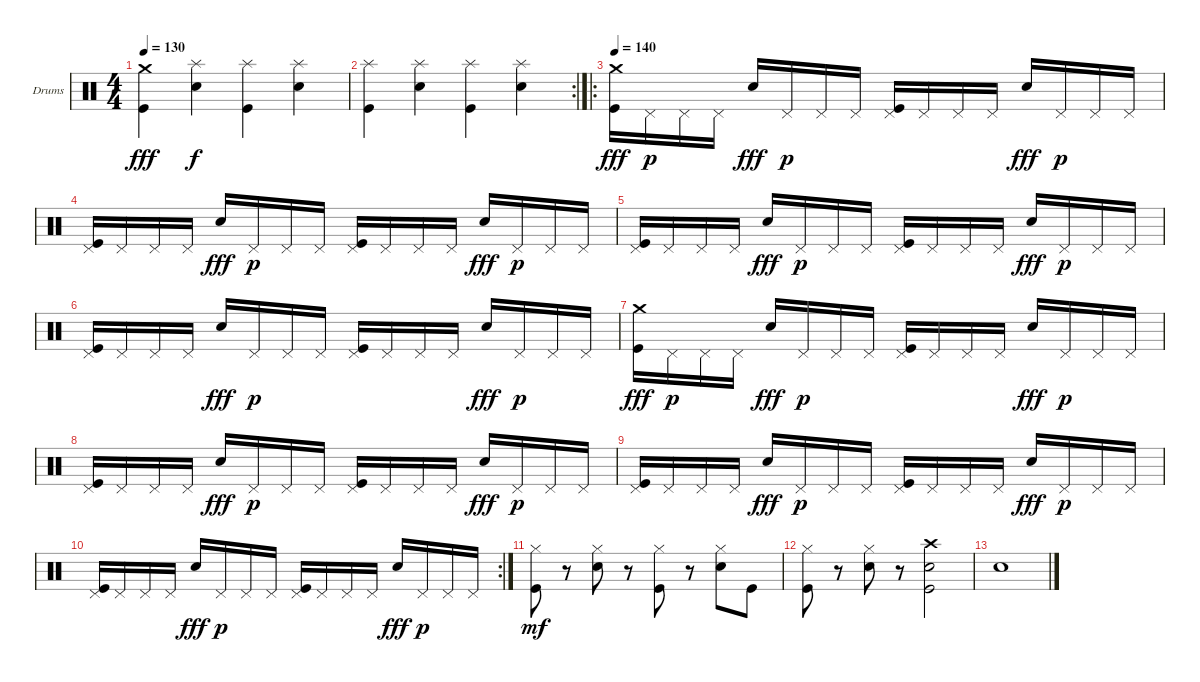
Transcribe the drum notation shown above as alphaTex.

\bracketExtendMode groupsimilarinstruments
\firstSystemTrackNameOrientation horizontal
\otherSystemsTrackNameOrientation horizontal
\track ("Drums" "Drums") {instrument percussion}
\staff {score}
\articulation defaults
\ts (4 4)
\tempo 130
\clef neutral
\ks c
("Crash medium (hit)" "Kick (hit)").4{dy fff} ("Splash (hit)" "Snare (hit) 2").4{dy f} ("Splash (hit)" "Kick (hit)").4 ("Splash (hit)" "Snare (hit) 2").4 |
\rc 2
("Splash (hit)" "Kick (hit)").4 ("Splash (hit)" "Snare (hit) 2").4 ("Splash (hit)" "Kick (hit)").4 ("Splash (hit)" "Snare (hit) 2").4 |
\ro
\tempo 140
("Crash medium (hit)" "Kick (hit)").16{dy fff} "Pedal Hi-Hat (hit)".16{dy p} "Pedal Hi-Hat (hit)".16 "Pedal Hi-Hat (hit)".16 "Snare (hit) 2".16{dy fff} "Pedal Hi-Hat (hit)".16{dy p} "Pedal Hi-Hat (hit)".16 "Pedal Hi-Hat (hit)".16 ("Pedal Hi-Hat (hit)" "Kick (hit)").16 "Pedal Hi-Hat (hit)".16 "Pedal Hi-Hat (hit)".16 "Pedal Hi-Hat (hit)".16 "Snare (hit) 2".16{dy fff} "Pedal Hi-Hat (hit)".16{dy p} "Pedal Hi-Hat (hit)".16 "Pedal Hi-Hat (hit)".16 |
("Pedal Hi-Hat (hit)" "Kick (hit)").16 "Pedal Hi-Hat (hit)".16 "Pedal Hi-Hat (hit)".16 "Pedal Hi-Hat (hit)".16 "Snare (hit) 2".16{dy fff} "Pedal Hi-Hat (hit)".16{dy p} "Pedal Hi-Hat (hit)".16 "Pedal Hi-Hat (hit)".16 ("Pedal Hi-Hat (hit)" "Kick (hit)").16 "Pedal Hi-Hat (hit)".16 "Pedal Hi-Hat (hit)".16 "Pedal Hi-Hat (hit)".16 "Snare (hit) 2".16{dy fff} "Pedal Hi-Hat (hit)".16{dy p} "Pedal Hi-Hat (hit)".16 "Pedal Hi-Hat (hit)".16 |
("Pedal Hi-Hat (hit)" "Kick (hit)").16 "Pedal Hi-Hat (hit)".16 "Pedal Hi-Hat (hit)".16 "Pedal Hi-Hat (hit)".16 "Snare (hit) 2".16{dy fff} "Pedal Hi-Hat (hit)".16{dy p} "Pedal Hi-Hat (hit)".16 "Pedal Hi-Hat (hit)".16 ("Pedal Hi-Hat (hit)" "Kick (hit)").16 "Pedal Hi-Hat (hit)".16 "Pedal Hi-Hat (hit)".16 "Pedal Hi-Hat (hit)".16 "Snare (hit) 2".16{dy fff} "Pedal Hi-Hat (hit)".16{dy p} "Pedal Hi-Hat (hit)".16 "Pedal Hi-Hat (hit)".16 |
("Pedal Hi-Hat (hit)" "Kick (hit)").16 "Pedal Hi-Hat (hit)".16 "Pedal Hi-Hat (hit)".16 "Pedal Hi-Hat (hit)".16 "Snare (hit) 2".16{dy fff} "Pedal Hi-Hat (hit)".16{dy p} "Pedal Hi-Hat (hit)".16 "Pedal Hi-Hat (hit)".16 ("Pedal Hi-Hat (hit)" "Kick (hit)").16 "Pedal Hi-Hat (hit)".16 "Pedal Hi-Hat (hit)".16 "Pedal Hi-Hat (hit)".16 "Snare (hit) 2".16{dy fff} "Pedal Hi-Hat (hit)".16{dy p} "Pedal Hi-Hat (hit)".16 "Pedal Hi-Hat (hit)".16 |
("Crash medium (hit)" "Kick (hit)").16{dy fff} "Pedal Hi-Hat (hit)".16{dy p} "Pedal Hi-Hat (hit)".16 "Pedal Hi-Hat (hit)".16 "Snare (hit) 2".16{dy fff} "Pedal Hi-Hat (hit)".16{dy p} "Pedal Hi-Hat (hit)".16 "Pedal Hi-Hat (hit)".16 ("Pedal Hi-Hat (hit)" "Kick (hit)").16 "Pedal Hi-Hat (hit)".16 "Pedal Hi-Hat (hit)".16 "Pedal Hi-Hat (hit)".16 "Snare (hit) 2".16{dy fff} "Pedal Hi-Hat (hit)".16{dy p} "Pedal Hi-Hat (hit)".16 "Pedal Hi-Hat (hit)".16 |
("Pedal Hi-Hat (hit)" "Kick (hit)").16 "Pedal Hi-Hat (hit)".16 "Pedal Hi-Hat (hit)".16 "Pedal Hi-Hat (hit)".16 "Snare (hit) 2".16{dy fff} "Pedal Hi-Hat (hit)".16{dy p} "Pedal Hi-Hat (hit)".16 "Pedal Hi-Hat (hit)".16 ("Pedal Hi-Hat (hit)" "Kick (hit)").16 "Pedal Hi-Hat (hit)".16 "Pedal Hi-Hat (hit)".16 "Pedal Hi-Hat (hit)".16 "Snare (hit) 2".16{dy fff} "Pedal Hi-Hat (hit)".16{dy p} "Pedal Hi-Hat (hit)".16 "Pedal Hi-Hat (hit)".16 |
("Pedal Hi-Hat (hit)" "Kick (hit)").16 "Pedal Hi-Hat (hit)".16 "Pedal Hi-Hat (hit)".16 "Pedal Hi-Hat (hit)".16 "Snare (hit) 2".16{dy fff} "Pedal Hi-Hat (hit)".16{dy p} "Pedal Hi-Hat (hit)".16 "Pedal Hi-Hat (hit)".16 ("Pedal Hi-Hat (hit)" "Kick (hit)").16 "Pedal Hi-Hat (hit)".16 "Pedal Hi-Hat (hit)".16 "Pedal Hi-Hat (hit)".16 "Snare (hit) 2".16{dy fff} "Pedal Hi-Hat (hit)".16{dy p} "Pedal Hi-Hat (hit)".16 "Pedal Hi-Hat (hit)".16 |
\rc 2
("Pedal Hi-Hat (hit)" "Kick (hit)").16 "Pedal Hi-Hat (hit)".16 "Pedal Hi-Hat (hit)".16 "Pedal Hi-Hat (hit)".16 "Snare (hit) 2".16{dy fff} "Pedal Hi-Hat (hit)".16{dy p} "Pedal Hi-Hat (hit)".16 "Pedal Hi-Hat (hit)".16 ("Pedal Hi-Hat (hit)" "Kick (hit)").16 "Pedal Hi-Hat (hit)".16 "Pedal Hi-Hat (hit)".16 "Pedal Hi-Hat (hit)".16 "Snare (hit) 2".16{dy fff} "Pedal Hi-Hat (hit)".16{dy p} "Pedal Hi-Hat (hit)".16 "Pedal Hi-Hat (hit)".16 |
("Kick (hit)" "Hi-Hat (closed)").8{dy mf} r.8 ("Snare (hit) 2" "Hi-Hat (closed)").8 r.8 ("Kick (hit)" "Hi-Hat (closed)").8 r.8 ("Snare (hit) 2" "Hi-Hat (closed)").8 "Kick (hit)".8 |
("Kick (hit)" "Hi-Hat (closed)").8 r.8 ("Snare (hit) 2" "Hi-Hat (closed)").8 r.8 ("Kick (hit)" "Crash high (hit)" "Snare (hit) 2").2 |
"Snare (hit) 2".1
